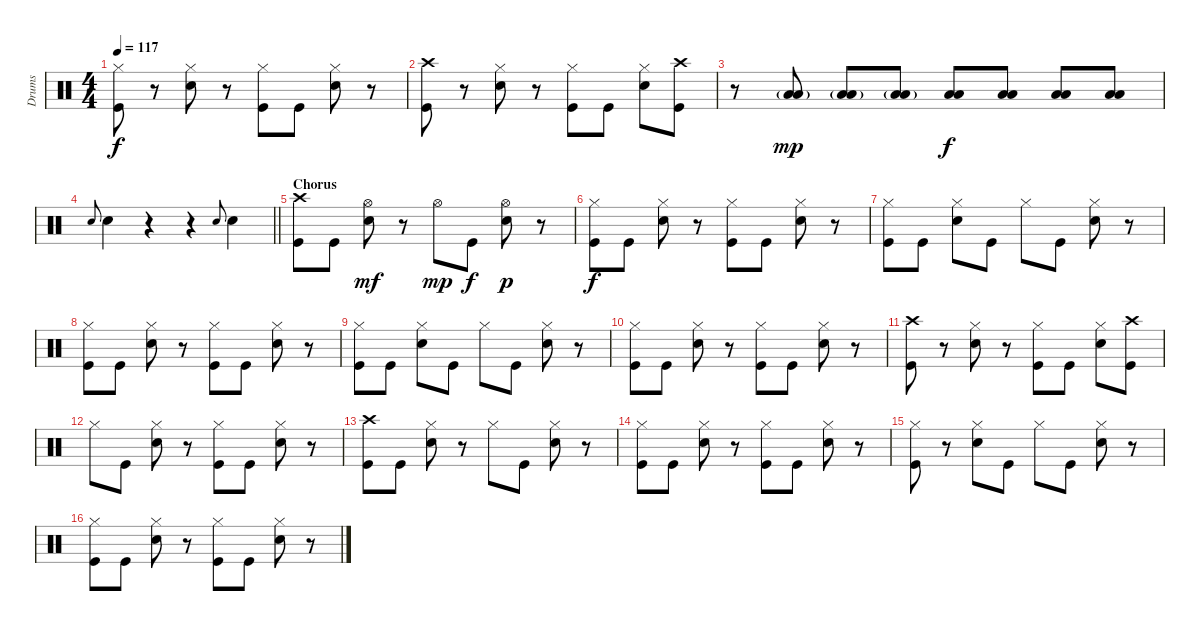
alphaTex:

\track ("Drums" "Drums") {instrument percussion}
\staff {score}
\articulation defaults
\ts (4 4)
\tempo 117
\clef neutral
\ks c
("Hi-Hat (closed)" "Kick (hit)").8{dy f} r.8 ("Hi-Hat (closed)" "Snare (hit) 2").8 r.8 ("Hi-Hat (closed)" "Kick (hit)").8 "Kick (hit)".8 ("Hi-Hat (closed)" "Snare (hit) 2").8 r.8 |
("Crash high (hit)" "Kick (hit)").8 r.8 ("Hi-Hat (closed)" "Snare (hit) 2").8 r.8 ("Hi-Hat (closed)" "Kick (hit)").8 "Kick (hit)".8 ("Hi-Hat (closed)" "Snare (hit) 2").8 ("Crash high (hit)" "Kick (hit)").8 |
r.8 ("Low Floor Tom (hit)"{g} "Low Tom (hit)"{g}).8{dy mp} ("Low Floor Tom (hit)"{g} "Low Tom (hit)"{g}).8 ("Low Floor Tom (hit)"{g} "Low Tom (hit)"{g}).8 ("Low Floor Tom (hit)" "Low Tom (hit)").8{dy f} ("Low Floor Tom (hit)" "Low Tom (hit)").8 ("Low Floor Tom (hit)" "Low Tom (hit)").8 ("Low Floor Tom (hit)" "Low Tom (hit)").8 |
\barLineRight lightlight "Snare (hit) 2".8{gr onbeat} "Snare (hit) 2".4
r.4 r.4 "Snare (hit) 2".8{gr onbeat} "Snare (hit) 2".4 |
\section ("" "Chorus")
("Crash high (hit)" "Kick (hit)").8 "Kick (hit)".8 ("Hi-Hat (open)" "Snare (hit) 2").8{dy mf} r.8 "Hi-Hat (open)".8{dy mp} "Kick (hit)".8{dy f} ("Hi-Hat (open)" "Snare (hit) 2").8{dy p} r.8 |
("Hi-Hat (closed)" "Kick (hit)").8{dy f} "Kick (hit)".8 ("Hi-Hat (closed)" "Snare (hit) 2").8 r.8 ("Hi-Hat (closed)" "Kick (hit)").8 "Kick (hit)".8 ("Hi-Hat (closed)" "Snare (hit) 2").8 r.8 |
("Hi-Hat (closed)" "Kick (hit)").8 "Kick (hit)".8 ("Hi-Hat (closed)" "Snare (hit) 2").8 "Kick (hit)".8 "Hi-Hat (closed)".8 "Kick (hit)".8 ("Hi-Hat (closed)" "Snare (hit) 2").8 r.8 |
("Hi-Hat (closed)" "Kick (hit)").8 "Kick (hit)".8 ("Hi-Hat (closed)" "Snare (hit) 2").8 r.8 ("Hi-Hat (closed)" "Kick (hit)").8 "Kick (hit)".8 ("Hi-Hat (closed)" "Snare (hit) 2").8 r.8 |
("Hi-Hat (closed)" "Kick (hit)").8 "Kick (hit)".8 ("Hi-Hat (closed)" "Snare (hit) 2").8 "Kick (hit)".8 "Hi-Hat (closed)".8 "Kick (hit)".8 ("Hi-Hat (closed)" "Snare (hit) 2").8 r.8 |
("Hi-Hat (closed)" "Kick (hit)").8 "Kick (hit)".8 ("Hi-Hat (closed)" "Snare (hit) 2").8 r.8 ("Hi-Hat (closed)" "Kick (hit)").8 "Kick (hit)".8 ("Hi-Hat (closed)" "Snare (hit) 2").8 r.8 |
("Crash high (hit)" "Kick (hit)").8 r.8 ("Hi-Hat (closed)" "Snare (hit) 2").8 r.8 ("Hi-Hat (closed)" "Kick (hit)").8 "Kick (hit)".8 ("Hi-Hat (closed)" "Snare (hit) 2").8 ("Crash high (hit)" "Kick (hit)").8 |
"Hi-Hat (closed)".8 "Kick (hit)".8 ("Hi-Hat (closed)" "Snare (hit) 2").8 r.8 ("Hi-Hat (closed)" "Kick (hit)").8 "Kick (hit)".8 ("Hi-Hat (closed)" "Snare (hit) 2").8 r.8 |
("Crash high (hit)" "Kick (hit)").8 "Kick (hit)".8 ("Hi-Hat (closed)" "Snare (hit) 2").8 r.8 "Hi-Hat (closed)".8 "Kick (hit)".8 ("Hi-Hat (closed)" "Snare (hit) 2").8 r.8 |
("Hi-Hat (closed)" "Kick (hit)").8 "Kick (hit)".8 ("Hi-Hat (closed)" "Snare (hit) 2").8 r.8 ("Hi-Hat (closed)" "Kick (hit)").8 "Kick (hit)".8 ("Hi-Hat (closed)" "Snare (hit) 2").8 r.8 |
("Hi-Hat (closed)" "Kick (hit)").8 r.8 ("Hi-Hat (closed)" "Snare (hit) 2").8 "Kick (hit)".8 "Hi-Hat (closed)".8 "Kick (hit)".8 ("Hi-Hat (closed)" "Snare (hit) 2").8 r.8 |
("Hi-Hat (closed)" "Kick (hit)").8 "Kick (hit)".8 ("Hi-Hat (closed)" "Snare (hit) 2").8 r.8 ("Hi-Hat (closed)" "Kick (hit)").8 "Kick (hit)".8 ("Hi-Hat (closed)" "Snare (hit) 2").8 r.8
